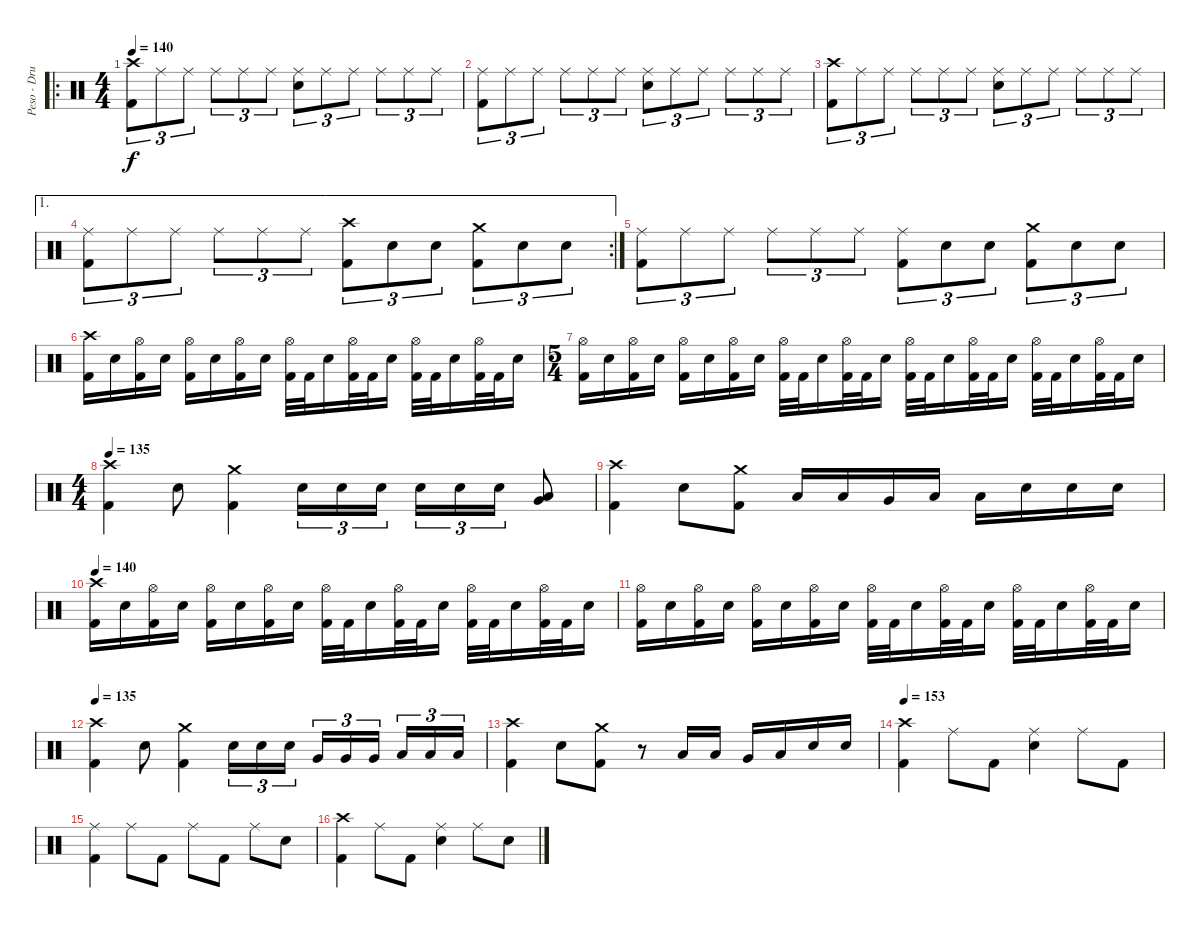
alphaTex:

\track ("Peso - Drums" "Peso - Dru") {instrument percussion}
\staff {score}
\articulation defaults
\ro
\ts (4 4)
\tempo 140
\clef neutral
\ks c
("Crash high (hit)" "Kick (hit) 2").8{tu (3 2) dy f} "Ride (middle)".8{tu (3 2)} "Ride (middle)".8{tu (3 2)} "Ride (middle)".8{tu (3 2)} "Ride (middle)".8{tu (3 2)} "Ride (middle)".8{tu (3 2)} ("Ride (middle)" "Electric Snare (hit)").8{tu (3 2)} "Ride (middle)".8{tu (3 2)} "Ride (middle)".8{tu (3 2)} "Ride (middle)".8{tu (3 2)} "Ride (middle)".8{tu (3 2)} "Ride (middle)".8{tu (3 2)} |
("Ride (middle)" "Kick (hit) 2").8{tu (3 2)} "Ride (middle)".8{tu (3 2)} "Ride (middle)".8{tu (3 2)} "Ride (middle)".8{tu (3 2)} "Ride (middle)".8{tu (3 2)} "Ride (middle)".8{tu (3 2)} ("Ride (middle)" "Electric Snare (hit)").8{tu (3 2)} "Ride (middle)".8{tu (3 2)} "Ride (middle)".8{tu (3 2)} "Ride (middle)".8{tu (3 2)} "Ride (middle)".8{tu (3 2)} "Ride (middle)".8{tu (3 2)} |
("Crash high (hit)" "Kick (hit) 2").8{tu (3 2)} "Ride (middle)".8{tu (3 2)} "Ride (middle)".8{tu (3 2)} "Ride (middle)".8{tu (3 2)} "Ride (middle)".8{tu (3 2)} "Ride (middle)".8{tu (3 2)} ("Ride (middle)" "Electric Snare (hit)").8{tu (3 2)} "Ride (middle)".8{tu (3 2)} "Ride (middle)".8{tu (3 2)} "Ride (middle)".8{tu (3 2)} "Ride (middle)".8{tu (3 2)} "Ride (middle)".8{tu (3 2)} |
\ae 1
\rc 2
("Ride (middle)" "Kick (hit) 2").8{tu (3 2)} "Ride (middle)".8{tu (3 2)} "Ride (middle)".8{tu (3 2)} "Ride (middle)".8{tu (3 2)} "Ride (middle)".8{tu (3 2)} "Ride (middle)".8{tu (3 2)} ("Crash high (hit)" "Kick (hit) 2").8{tu (3 2)} "Electric Snare (hit)".8{tu (3 2)} "Electric Snare (hit)".8{tu (3 2)} ("Crash medium (hit)" "Kick (hit) 2").8{tu (3 2)} "Electric Snare (hit)".8{tu (3 2)} "Electric Snare (hit)".8{tu (3 2)} |
("Ride (middle)" "Kick (hit) 2").8{tu (3 2)} "Ride (middle)".8{tu (3 2)} "Ride (middle)".8{tu (3 2)} "Ride (middle)".8{tu (3 2)} "Ride (middle)".8{tu (3 2)} "Ride (middle)".8{tu (3 2)} ("Ride (middle)" "Kick (hit) 2").8{tu (3 2)} "Electric Snare (hit)".8{tu (3 2)} "Electric Snare (hit)".8{tu (3 2)} ("Crash medium (hit)" "Kick (hit) 2").8{tu (3 2)} "Electric Snare (hit)".8{tu (3 2)} "Electric Snare (hit)".8{tu (3 2)} |
("Crash high (hit)" "Kick (hit) 2").16 "Electric Snare (hit)".16 ("Hi-Hat (open)" "Kick (hit) 2").16 "Electric Snare (hit)".16 ("Hi-Hat (open)" "Kick (hit) 2").16 "Electric Snare (hit)".16 ("Hi-Hat (open)" "Kick (hit) 2").16 "Electric Snare (hit)".16 ("Hi-Hat (open)" "Kick (hit) 2").32 "Kick (hit) 2".32 "Electric Snare (hit)".16 ("Hi-Hat (open)" "Kick (hit) 2").32 "Kick (hit) 2".32 "Electric Snare (hit)".16 ("Hi-Hat (open)" "Kick (hit) 2").32 "Kick (hit) 2".32 "Electric Snare (hit)".16 ("Hi-Hat (open)" "Kick (hit) 2").32 "Kick (hit) 2".32 "Electric Snare (hit)".16 |
\ts (5 4)
("Hi-Hat (open)" "Kick (hit) 2").16 "Electric Snare (hit)".16 ("Hi-Hat (open)" "Kick (hit) 2").16 "Electric Snare (hit)".16 ("Hi-Hat (open)" "Kick (hit) 2").16 "Electric Snare (hit)".16 ("Hi-Hat (open)" "Kick (hit) 2").16 "Electric Snare (hit)".16 ("Hi-Hat (open)" "Kick (hit) 2").32 "Kick (hit) 2".32 "Electric Snare (hit)".16 ("Hi-Hat (open)" "Kick (hit) 2").32 "Kick (hit) 2".32 "Electric Snare (hit)".16 ("Hi-Hat (open)" "Kick (hit) 2").32 "Kick (hit) 2".32 "Electric Snare (hit)".16 ("Hi-Hat (open)" "Kick (hit) 2").32 "Kick (hit) 2".32 "Electric Snare (hit)".16 ("Hi-Hat (open)" "Kick (hit) 2").32 "Kick (hit) 2".32 "Electric Snare (hit)".16 ("Hi-Hat (open)" "Kick (hit) 2").32 "Kick (hit) 2".32 "Electric Snare (hit)".16 |
\ts (4 4)
\tempo 135
("Crash high (hit)" "Kick (hit) 2").4 "Electric Snare (hit)".8 ("Crash medium (hit)" "Kick (hit) 2").4 "Electric Snare (hit)".16{tu (3 2)} "Electric Snare (hit)".16{tu (3 2)} "Electric Snare (hit)".16{tu (3 2)} "Electric Snare (hit)".16{tu (3 2)} "Electric Snare (hit)".16{tu (3 2)} "Electric Snare (hit)".16{tu (3 2)} ("Very Low Tom (hit)" "Low Floor Tom (hit)").8 |
("Crash high (hit)" "Kick (hit) 2").4 "Electric Snare (hit)".8 ("Crash medium (hit)" "Kick (hit) 2").8 "Low Tom (hit)".16 "Low Tom (hit)".16 "Very Low Tom (hit)".16 "Low Floor Tom (hit)".16 "Low Floor Tom (hit)".16 "Electric Snare (hit)".16 "Electric Snare (hit)".16 "Electric Snare (hit)".16 |
\tempo 140
("Crash high (hit)" "Kick (hit) 2").16 "Electric Snare (hit)".16 ("Hi-Hat (open)" "Kick (hit) 2").16 "Electric Snare (hit)".16 ("Hi-Hat (open)" "Kick (hit) 2").16 "Electric Snare (hit)".16 ("Hi-Hat (open)" "Kick (hit) 2").16 "Electric Snare (hit)".16 ("Hi-Hat (open)" "Kick (hit) 2").32 "Kick (hit) 2".32 "Electric Snare (hit)".16 ("Hi-Hat (open)" "Kick (hit) 2").32 "Kick (hit) 2".32 "Electric Snare (hit)".16 ("Hi-Hat (open)" "Kick (hit) 2").32 "Kick (hit) 2".32 "Electric Snare (hit)".16 ("Hi-Hat (open)" "Kick (hit) 2").32 "Kick (hit) 2".32 "Electric Snare (hit)".16 |
("Hi-Hat (open)" "Kick (hit) 2").16 "Electric Snare (hit)".16 ("Hi-Hat (open)" "Kick (hit) 2").16 "Electric Snare (hit)".16 ("Hi-Hat (open)" "Kick (hit) 2").16 "Electric Snare (hit)".16 ("Hi-Hat (open)" "Kick (hit) 2").16 "Electric Snare (hit)".16 ("Hi-Hat (open)" "Kick (hit) 2").32 "Kick (hit) 2".32 "Electric Snare (hit)".16 ("Hi-Hat (open)" "Kick (hit) 2").32 "Kick (hit) 2".32 "Electric Snare (hit)".16 ("Hi-Hat (open)" "Kick (hit) 2").32 "Kick (hit) 2".32 "Electric Snare (hit)".16 ("Hi-Hat (open)" "Kick (hit) 2").32 "Kick (hit) 2".32 "Electric Snare (hit)".16 |
\tempo 135
("Crash high (hit)" "Kick (hit) 2").4 "Electric Snare (hit)".8 ("Crash medium (hit)" "Kick (hit) 2").4 "Electric Snare (hit)".16{tu (3 2)} "Electric Snare (hit)".16{tu (3 2)} "Electric Snare (hit)".16{tu (3 2)} "Very Low Tom (hit)".16{tu (3 2)} "Very Low Tom (hit)".16{tu (3 2)} "Very Low Tom (hit)".16{tu (3 2) beam splitsecondary} "Low Floor Tom (hit)".16{tu (3 2)} "Low Floor Tom (hit)".16{tu (3 2)} "Low Floor Tom (hit)".16{tu (3 2)} |
("Crash high (hit)" "Kick (hit) 2").4 "Electric Snare (hit)".8 ("Crash medium (hit)" "Kick (hit) 2").8 r.8 "Low Tom (hit)".16 "Low Tom (hit)".16 "Very Low Tom (hit)".16 "Low Floor Tom (hit)".16 "Electric Snare (hit)".16 "Electric Snare (hit)".16 |
\tempo 153
("Crash high (hit)" "Kick (hit) 2").4 "Ride (middle)".8 "Kick (hit) 2".8 ("Ride (middle)" "Electric Snare (hit)").4 "Ride (middle)".8 "Kick (hit) 2".8 |
("Ride (middle)" "Kick (hit) 2").4 "Ride (middle)".8 "Kick (hit) 2".8 "Ride (middle)".8 "Kick (hit) 2".8 "Ride (middle)".8 "Electric Snare (hit)".8 |
("Crash high (hit)" "Kick (hit) 2").4 "Ride (middle)".8 "Kick (hit) 2".8 ("Ride (middle)" "Electric Snare (hit)").4 "Ride (middle)".8 "Electric Snare (hit)".8
